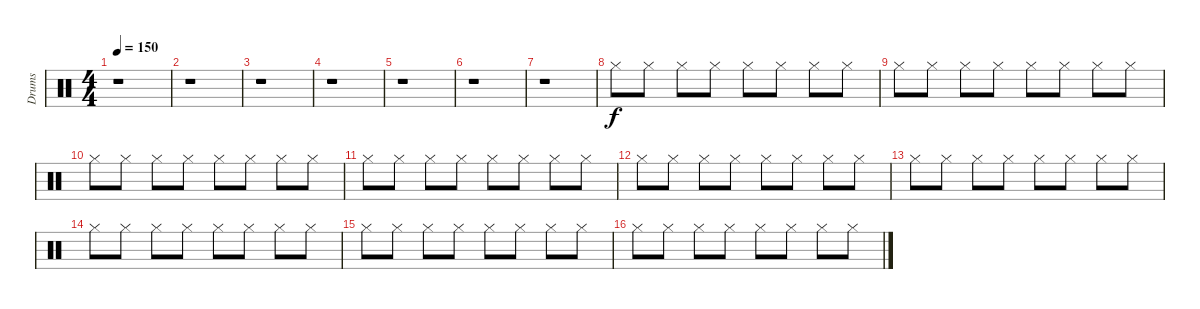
\track ("Drums" "Drums") {instrument percussion}
\staff {score}
\articulation defaults
\ts (4 4)
\tempo 150
\clef neutral
\ks c
r.1{dy f} |
r.1 |
r.1 |
r.1 |
r.1 |
r.1 |
r.1 |
"Hi-Hat (closed)".8 "Hi-Hat (closed)".8 "Hi-Hat (closed)".8 "Hi-Hat (closed)".8 "Hi-Hat (closed)".8 "Hi-Hat (closed)".8 "Hi-Hat (closed)".8 "Hi-Hat (closed)".8 |
"Hi-Hat (closed)".8 "Hi-Hat (closed)".8 "Hi-Hat (closed)".8 "Hi-Hat (closed)".8 "Hi-Hat (closed)".8 "Hi-Hat (closed)".8 "Hi-Hat (closed)".8 "Hi-Hat (closed)".8 |
"Hi-Hat (closed)".8 "Hi-Hat (closed)".8 "Hi-Hat (closed)".8 "Hi-Hat (closed)".8 "Hi-Hat (closed)".8 "Hi-Hat (closed)".8 "Hi-Hat (closed)".8 "Hi-Hat (closed)".8 |
"Hi-Hat (closed)".8 "Hi-Hat (closed)".8 "Hi-Hat (closed)".8 "Hi-Hat (closed)".8 "Hi-Hat (closed)".8 "Hi-Hat (closed)".8 "Hi-Hat (closed)".8 "Hi-Hat (closed)".8 |
"Hi-Hat (closed)".8 "Hi-Hat (closed)".8 "Hi-Hat (closed)".8 "Hi-Hat (closed)".8 "Hi-Hat (closed)".8 "Hi-Hat (closed)".8 "Hi-Hat (closed)".8 "Hi-Hat (closed)".8 |
"Hi-Hat (closed)".8 "Hi-Hat (closed)".8 "Hi-Hat (closed)".8 "Hi-Hat (closed)".8 "Hi-Hat (closed)".8 "Hi-Hat (closed)".8 "Hi-Hat (closed)".8 "Hi-Hat (closed)".8 |
"Hi-Hat (closed)".8 "Hi-Hat (closed)".8 "Hi-Hat (closed)".8 "Hi-Hat (closed)".8 "Hi-Hat (closed)".8 "Hi-Hat (closed)".8 "Hi-Hat (closed)".8 "Hi-Hat (closed)".8 |
"Hi-Hat (closed)".8 "Hi-Hat (closed)".8 "Hi-Hat (closed)".8 "Hi-Hat (closed)".8 "Hi-Hat (closed)".8 "Hi-Hat (closed)".8 "Hi-Hat (closed)".8 "Hi-Hat (closed)".8 |
"Hi-Hat (closed)".8 "Hi-Hat (closed)".8 "Hi-Hat (closed)".8 "Hi-Hat (closed)".8 "Hi-Hat (closed)".8 "Hi-Hat (closed)".8 "Hi-Hat (closed)".8 "Hi-Hat (closed)".8
